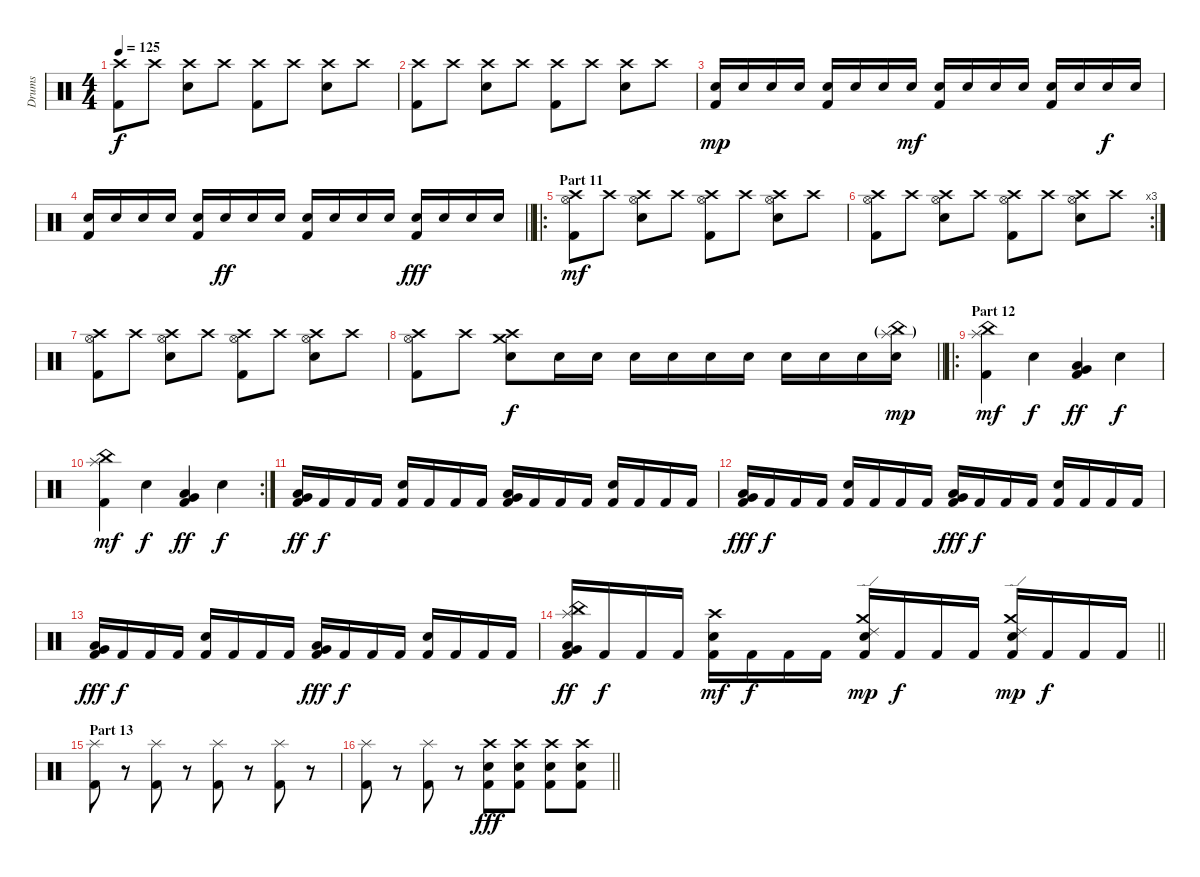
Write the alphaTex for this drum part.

\track ("Drums" "Drums") {instrument percussion}
\staff {score}
\articulation defaults
\ts (4 4)
\tempo 125
\clef neutral
\ks c
("Crash high (hit)" "Kick (hit) 2").8{dy f} "Crash high (hit)".8 ("Crash high (hit)" "Electric Snare (hit)").8 "Crash high (hit)".8 ("Crash high (hit)" "Kick (hit) 2").8 "Crash high (hit)".8 ("Crash high (hit)" "Electric Snare (hit)").8 "Crash high (hit)".8 |
("Crash high (hit)" "Kick (hit) 2").8 "Crash high (hit)".8 ("Crash high (hit)" "Electric Snare (hit)").8 "Crash high (hit)".8 ("Crash high (hit)" "Kick (hit) 2").8 "Crash high (hit)".8 ("Crash high (hit)" "Electric Snare (hit)").8 "Crash high (hit)".8 |
("Electric Snare (hit)" "Kick (hit) 2").16{dy mp} "Electric Snare (hit)".16 "Electric Snare (hit)".16 "Electric Snare (hit)".16 ("Electric Snare (hit)" "Kick (hit) 2").16 "Electric Snare (hit)".16 "Electric Snare (hit)".16 "Electric Snare (hit)".16{dy mf} ("Electric Snare (hit)" "Kick (hit) 2").16 "Electric Snare (hit)".16 "Electric Snare (hit)".16 "Electric Snare (hit)".16 ("Electric Snare (hit)" "Kick (hit) 2").16 "Electric Snare (hit)".16 "Electric Snare (hit)".16{dy f} "Electric Snare (hit)".16 |
\barLineRight lightlight
("Electric Snare (hit)" "Kick (hit) 2").16 "Electric Snare (hit)".16 "Electric Snare (hit)".16 "Electric Snare (hit)".16 ("Electric Snare (hit)" "Kick (hit) 2").16 "Electric Snare (hit)".16{dy ff} "Electric Snare (hit)".16 "Electric Snare (hit)".16 ("Electric Snare (hit)" "Kick (hit) 2").16 "Electric Snare (hit)".16 "Electric Snare (hit)".16 "Electric Snare (hit)".16 ("Electric Snare (hit)" "Kick (hit) 2").16{dy fff} "Electric Snare (hit)".16 "Electric Snare (hit)".16 "Electric Snare (hit)".16 |
\ro
\section ("" "Part 11")
("Crash high (hit)" "Hi-Hat (open)" "Kick (hit) 2").8{dy mf} "Crash high (hit)".8 ("Crash high (hit)" "Hi-Hat (open)" "Electric Snare (hit)").8 "Crash high (hit)".8 ("Crash high (hit)" "Hi-Hat (open)" "Kick (hit) 2").8 "Crash high (hit)".8 ("Crash high (hit)" "Hi-Hat (open)" "Electric Snare (hit)").8 "Crash high (hit)".8 |
\rc 3
("Crash high (hit)" "Hi-Hat (open)" "Kick (hit) 2").8 "Crash high (hit)".8 ("Crash high (hit)" "Hi-Hat (open)" "Electric Snare (hit)").8 "Crash high (hit)".8 ("Crash high (hit)" "Hi-Hat (open)" "Kick (hit) 2").8 "Crash high (hit)".8 ("Crash high (hit)" "Hi-Hat (open)" "Electric Snare (hit)").8 "Crash high (hit)".8 |
("Crash high (hit)" "Hi-Hat (open)" "Kick (hit) 2").8 "Crash high (hit)".8 ("Crash high (hit)" "Hi-Hat (open)" "Electric Snare (hit)").8 "Crash high (hit)".8 ("Crash high (hit)" "Hi-Hat (open)" "Kick (hit) 2").8 "Crash high (hit)".8 ("Crash high (hit)" "Hi-Hat (open)" "Electric Snare (hit)").8 "Crash high (hit)".8 |
\barLineRight lightlight
("Crash high (hit)" "Hi-Hat (open)" "Kick (hit) 2").8 "Crash high (hit)".8 ("Crash high (hit)" "Crash medium (hit)" "Electric Snare (hit)").8{dy f} "Electric Snare (hit)".16 "Electric Snare (hit)".16 "Electric Snare (hit)".16 "Electric Snare (hit)".16 "Electric Snare (hit)".16 "Electric Snare (hit)".16 "Electric Snare (hit)".16 "Electric Snare (hit)".16 "Electric Snare (hit)".16 ("Splash (hit)"{g} "China (hit)"{g} "Electric Snare (hit)").16{dy mp} |
\ro
\section ("" "Part 12")
("Splash (hit)" "China (hit)" "Kick (hit) 2").4{dy mf} "Electric Snare (hit)".4{dy f} ("Very Low Tom (hit)" "Low Floor Tom (hit)" "Kick (hit) 2").4{dy ff} "Electric Snare (hit)".4{dy f} |
\rc 2
("Splash (hit)" "China (hit)" "Kick (hit) 2").4{dy mf} "Electric Snare (hit)".4{dy f} ("Very Low Tom (hit)" "Low Floor Tom (hit)" "Kick (hit) 2").4{dy ff} "Electric Snare (hit)".4{dy f} |
("Very Low Tom (hit)" "Low Floor Tom (hit)" "Kick (hit) 2").16{dy ff} "Kick (hit) 2".16{dy f} "Kick (hit) 2".16 "Kick (hit) 2".16 ("Electric Snare (hit)" "Kick (hit) 2").16 "Kick (hit) 2".16 "Kick (hit) 2".16 "Kick (hit) 2".16 ("Very Low Tom (hit)" "Low Floor Tom (hit)" "Kick (hit) 2").16 "Kick (hit) 2".16 "Kick (hit) 2".16 "Kick (hit) 2".16 ("Electric Snare (hit)" "Kick (hit) 2").16 "Kick (hit) 2".16 "Kick (hit) 2".16 "Kick (hit) 2".16 |
("Very Low Tom (hit)" "Low Floor Tom (hit)" "Kick (hit) 2").16{dy fff} "Kick (hit) 2".16{dy f} "Kick (hit) 2".16 "Kick (hit) 2".16 ("Electric Snare (hit)" "Kick (hit) 2").16 "Kick (hit) 2".16 "Kick (hit) 2".16 "Kick (hit) 2".16 ("Very Low Tom (hit)" "Low Floor Tom (hit)" "Kick (hit) 2").16{dy fff} "Kick (hit) 2".16{dy f} "Kick (hit) 2".16 "Kick (hit) 2".16 ("Electric Snare (hit)" "Kick (hit) 2").16 "Kick (hit) 2".16 "Kick (hit) 2".16 "Kick (hit) 2".16 |
("Very Low Tom (hit)" "Low Floor Tom (hit)" "Kick (hit) 2").16{dy fff} "Kick (hit) 2".16{dy f} "Kick (hit) 2".16 "Kick (hit) 2".16 ("Electric Snare (hit)" "Kick (hit) 2").16 "Kick (hit) 2".16 "Kick (hit) 2".16 "Kick (hit) 2".16 ("Very Low Tom (hit)" "Low Floor Tom (hit)" "Kick (hit) 2").16{dy fff} "Kick (hit) 2".16{dy f} "Kick (hit) 2".16 "Kick (hit) 2".16 ("Electric Snare (hit)" "Kick (hit) 2").16 "Kick (hit) 2".16 "Kick (hit) 2".16 "Kick (hit) 2".16 |
\barLineRight lightlight
("Splash (hit)" "China (hit)" "Very Low Tom (hit)" "Low Floor Tom (hit)" "Kick (hit) 2").16{dy ff} "Kick (hit) 2".16{dy f} "Kick (hit) 2".16 "Kick (hit) 2".16 ("Crash high (hit)" "Electric Snare (hit)" "Kick (hit) 2").16{dy mf} "Kick (hit) 2".16{dy f} "Kick (hit) 2".16 "Kick (hit) 2".16 ("Crash medium (hit)" "Ride (edge) 2" "Electric Snare (hit)" "Kick (hit) 2").16{dy mp} "Kick (hit) 2".16{dy f} "Kick (hit) 2".16 "Kick (hit) 2".16 ("Crash medium (hit)" "Ride (edge) 2" "Electric Snare (hit)" "Kick (hit) 2").16{dy mp} "Kick (hit) 2".16{dy f} "Kick (hit) 2".16 "Kick (hit) 2".16 |
\section ("" "Part 13")
("Splash (hit)" "Kick (hit) 2").8 r.8 ("Splash (hit)" "Kick (hit) 2").8 r.8 ("Splash (hit)" "Kick (hit) 2").8 r.8 ("Splash (hit)" "Kick (hit) 2").8 r.8 |
\barLineRight lightlight
("Splash (hit)" "Kick (hit) 2").8 r.8 ("Splash (hit)" "Kick (hit) 2").8 r.8 ("Crash high (hit)" "Electric Snare (hit)" "Kick (hit) 2").8{dy fff} ("Crash high (hit)" "Electric Snare (hit)" "Kick (hit) 2").8 ("Crash high (hit)" "Electric Snare (hit)" "Kick (hit) 2").8 ("Crash high (hit)" "Electric Snare (hit)" "Kick (hit) 2").8
